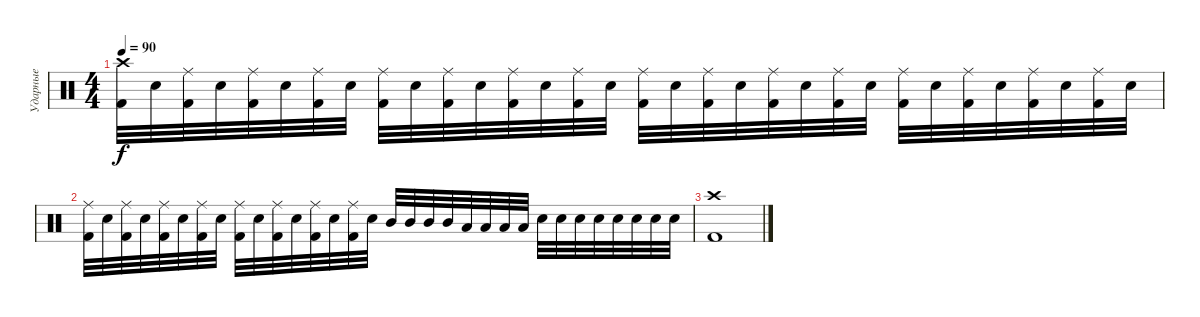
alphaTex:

\track ("Ударные" "Ударные") {instrument percussion}
\staff {score}
\articulation defaults
\ts (4 4)
\tempo 90
\clef neutral
\ks c
("Crash high (hit)" "Kick (hit) 2").32{dy f} "Snare (hit) 2".32 ("Ride (middle)" "Kick (hit) 2").32 "Snare (hit) 2".32 ("Ride (middle)" "Kick (hit) 2").32 "Snare (hit) 2".32 ("Ride (middle)" "Kick (hit) 2").32 "Snare (hit) 2".32 ("Ride (middle)" "Kick (hit) 2").32 "Snare (hit) 2".32 ("Ride (middle)" "Kick (hit) 2").32 "Snare (hit) 2".32 ("Ride (middle)" "Kick (hit) 2").32 "Snare (hit) 2".32 ("Ride (middle)" "Kick (hit) 2").32 "Snare (hit) 2".32 ("Ride (middle)" "Kick (hit) 2").32 "Snare (hit) 2".32 ("Ride (middle)" "Kick (hit) 2").32 "Snare (hit) 2".32 ("Ride (middle)" "Kick (hit) 2").32 "Snare (hit) 2".32 ("Ride (middle)" "Kick (hit) 2").32 "Snare (hit) 2".32 ("Ride (middle)" "Kick (hit) 2").32 "Snare (hit) 2".32 ("Ride (middle)" "Kick (hit) 2").32 "Snare (hit) 2".32 ("Ride (middle)" "Kick (hit) 2").32 "Snare (hit) 2".32 ("Ride (middle)" "Kick (hit) 2").32 "Snare (hit) 2".32 |
("Ride (middle)" "Kick (hit) 2").32 "Snare (hit) 2".32 ("Ride (middle)" "Kick (hit) 2").32 "Snare (hit) 2".32 ("Ride (middle)" "Kick (hit) 2").32 "Snare (hit) 2".32 ("Ride (middle)" "Kick (hit) 2").32 "Snare (hit) 2".32 ("Ride (middle)" "Kick (hit) 2").32 "Snare (hit) 2".32 ("Ride (middle)" "Kick (hit) 2").32 "Snare (hit) 2".32 ("Ride (middle)" "Kick (hit) 2").32 "Snare (hit) 2".32 ("Ride (middle)" "Kick (hit) 2").32 "Snare (hit) 2".32 "Mid Tom (hit)".32 "Mid Tom (hit)".32 "Mid Tom (hit)".32 "Mid Tom (hit)".32 "Low Tom (hit)".32 "Low Tom (hit)".32 "Low Tom (hit)".32 "Low Tom (hit)".32 "Snare (hit) 2".32 "Snare (hit) 2".32 "Snare (hit) 2".32 "Snare (hit) 2".32 "Snare (hit) 2".32 "Snare (hit) 2".32 "Snare (hit) 2".32 "Snare (hit) 2".32 |
("Crash high (hit)" "Kick (hit) 2").1
